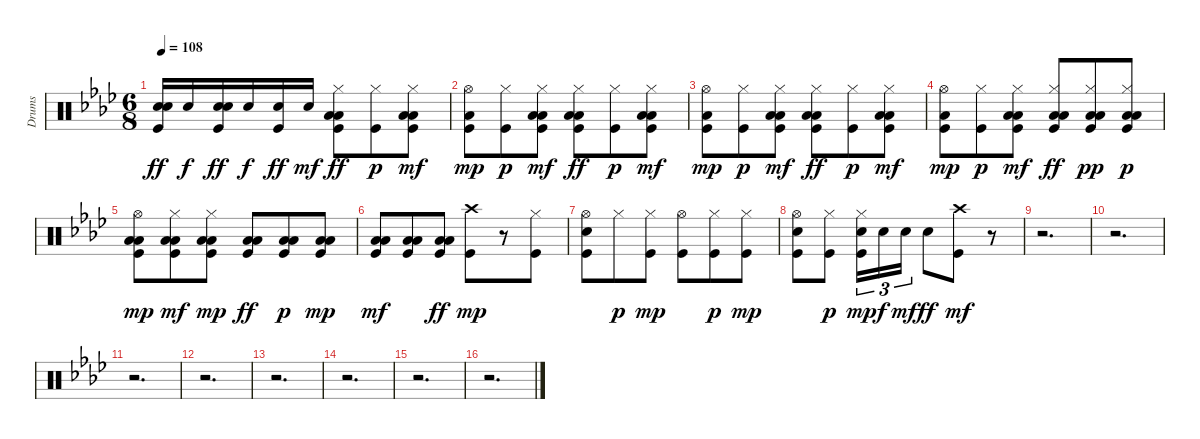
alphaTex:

\track ("Drums" "Drums") {instrument percussion}
\staff {score}
\articulation defaults
\ts (6 8)
\tempo 108
\clef neutral
\ks ab
("Kick (hit)" "Hand Clap (hit)" "Electric Snare (hit)").16{dy ff} "Electric Snare (hit)".16{dy f} ("Kick (hit)" "Hand Clap (hit)" "Electric Snare (hit)").16{dy ff} "Electric Snare (hit)".16{dy f} ("Kick (hit)" "Electric Snare (hit)").16{dy ff} "Electric Snare (hit)".16{dy mf} ("Kick (hit)" "Low Floor Tom (hit)" "Hi-Hat (closed)" "Low Tom (hit)").8{dy ff} ("Kick (hit)" "Hi-Hat (closed)").8{dy p} ("Kick (hit)" "Low Floor Tom (hit)" "Hi-Hat (closed)" "Low Tom (hit)").8{dy mf} |
("Kick (hit)" "Low Floor Tom (hit)" "Hi-Hat (open)").8{dy mp} ("Kick (hit)" "Hi-Hat (closed)").8{dy p} ("Kick (hit)" "Low Floor Tom (hit)" "Hi-Hat (closed)" "Low Tom (hit)").8{dy mf} ("Kick (hit)" "Low Floor Tom (hit)" "Hi-Hat (closed)" "Low Tom (hit)").8{dy ff} ("Kick (hit)" "Hi-Hat (closed)").8{dy p} ("Kick (hit)" "Low Floor Tom (hit)" "Hi-Hat (closed)" "Low Tom (hit)").8{dy mf} |
("Kick (hit)" "Low Floor Tom (hit)" "Hi-Hat (open)").8{dy mp} ("Kick (hit)" "Hi-Hat (closed)").8{dy p} ("Kick (hit)" "Low Floor Tom (hit)" "Hi-Hat (closed)" "Low Tom (hit)").8{dy mf} ("Kick (hit)" "Low Floor Tom (hit)" "Hi-Hat (closed)" "Low Tom (hit)").8{dy ff} ("Kick (hit)" "Hi-Hat (closed)").8{dy p} ("Kick (hit)" "Low Floor Tom (hit)" "Hi-Hat (closed)" "Low Tom (hit)").8{dy mf} |
("Kick (hit)" "Low Floor Tom (hit)" "Hi-Hat (open)").8{dy mp} ("Kick (hit)" "Hi-Hat (closed)").8{dy p} ("Kick (hit)" "Low Floor Tom (hit)" "Hi-Hat (closed)" "Low Tom (hit)").8{dy mf} ("Kick (hit)" "Low Floor Tom (hit)" "Hi-Hat (closed)" "Low Tom (hit)").8{dy ff} ("Kick (hit)" "Low Floor Tom (hit)" "Hi-Hat (closed)" "Low Tom (hit)").8{dy pp} ("Kick (hit)" "Low Floor Tom (hit)" "Hi-Hat (closed)" "Low Tom (hit)").8{dy p} |
("Kick (hit)" "Low Floor Tom (hit)" "Low Tom (hit)" "Hi-Hat (open)").8{dy mp} ("Kick (hit)" "Low Floor Tom (hit)" "Hi-Hat (closed)" "Low Tom (hit)").8{dy mf} ("Kick (hit)" "Low Floor Tom (hit)" "Hi-Hat (closed)" "Low Tom (hit)").8{dy mp} ("Kick (hit)" "Low Floor Tom (hit)" "Low Tom (hit)").8{dy ff} ("Kick (hit)" "Low Floor Tom (hit)" "Low Tom (hit)").8{dy p} ("Kick (hit)" "Low Floor Tom (hit)" "Low Tom (hit)").8{dy mp} |
("Kick (hit)" "Low Floor Tom (hit)" "Low Tom (hit)").8{dy mf} ("Kick (hit)" "Low Floor Tom (hit)" "Low Tom (hit)").8 ("Kick (hit)" "Low Floor Tom (hit)" "Low Tom (hit)").8{dy ff} ("Kick (hit)" "Crash high (hit)").8{dy mp} r.8 ("Kick (hit)" "Hi-Hat (closed)").8 |
("Kick (hit)" "Electric Snare (hit)" "Hi-Hat (open)").8 "Hi-Hat (closed)".8{dy p} ("Kick (hit)" "Hi-Hat (closed)").8{dy mp} ("Kick (hit)" "Hi-Hat (open)").8 ("Kick (hit)" "Hi-Hat (closed)").8{dy p} ("Kick (hit)" "Hi-Hat (closed)").8{dy mp} |
("Kick (hit)" "Electric Snare (hit)" "Hi-Hat (open)").8 ("Kick (hit)" "Hi-Hat (closed)").8{dy p} ("Kick (hit)" "Electric Snare (hit)" "Hi-Hat (closed)").16{tu (3 2) dy mp} "Electric Snare (hit)".16{tu (3 2) dy f} "Electric Snare (hit)".16{tu (3 2) dy mf} "Electric Snare (hit)".8{dy ff} ("Kick (hit)" "Crash high (hit)").8{dy mf} r.8 |
r.2{d} |
r.2{d} |
r.2{d} |
r.2{d} |
r.2{d} |
r.2{d} |
r.2{d} |
r.2{d}
